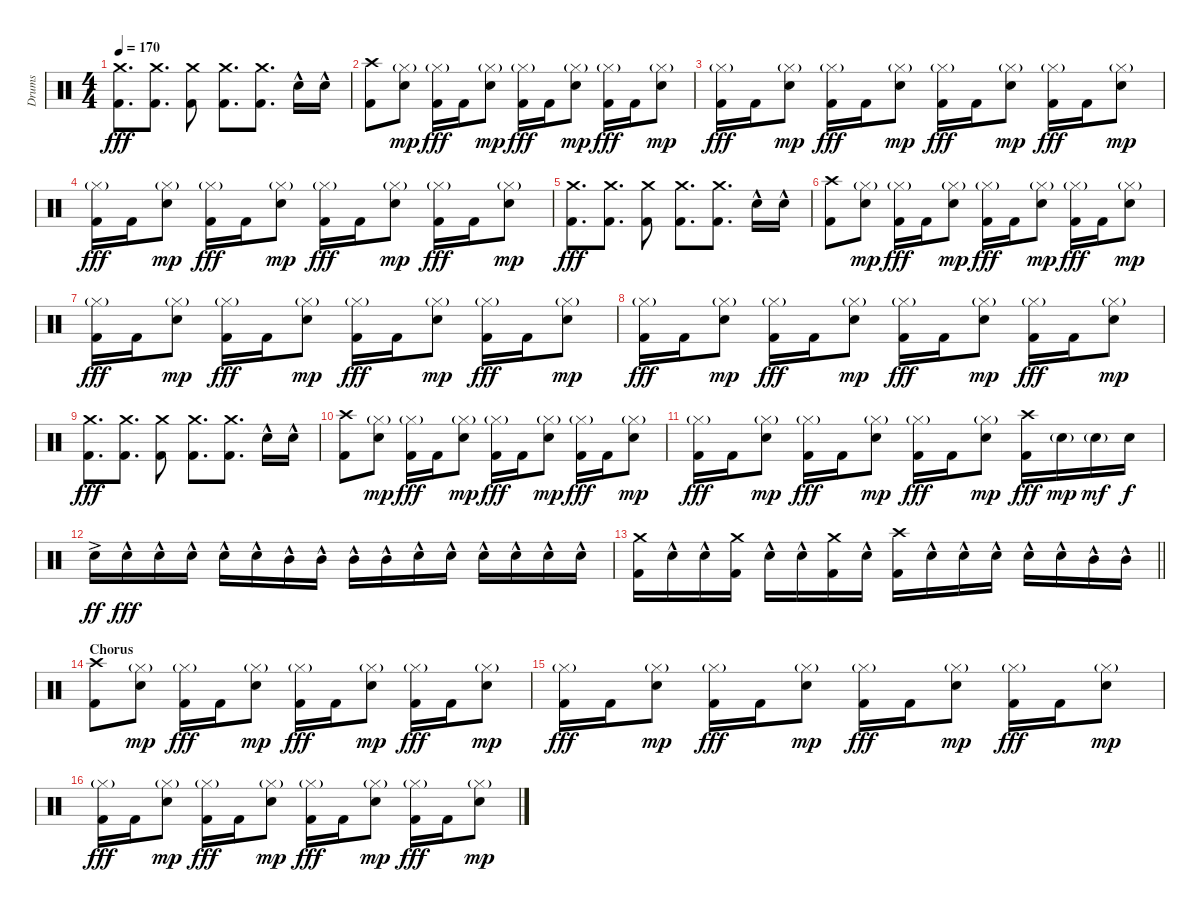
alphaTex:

\track ("Drums" "Drums") {instrument percussion}
\staff {score}
\articulation defaults
\ts (4 4)
\tempo 170
\clef neutral
\ks c
("Crash medium (hit)" "Kick (hit) 2").8{d dy fff} ("Crash medium (hit)" "Kick (hit) 2").8{d} ("Crash medium (hit)" "Kick (hit) 2").8 ("Crash medium (hit)" "Kick (hit) 2").8{d} ("Crash medium (hit)" "Kick (hit) 2").8{d} "Snare (hit) 2"{hac}.16 "Snare (hit) 2"{hac}.16 |
("Crash high (hit)" "Kick (hit) 2").8 ("Hi-Hat (closed)"{g} "Snare (hit) 2").8{dy mp} ("Hi-Hat (closed)"{g} "Kick (hit) 2").16{dy fff} "Kick (hit) 2".16 ("Hi-Hat (closed)"{g} "Snare (hit) 2").8{dy mp} ("Hi-Hat (closed)"{g} "Kick (hit) 2").16{dy fff} "Kick (hit) 2".16 ("Hi-Hat (closed)"{g} "Snare (hit) 2").8{dy mp} ("Hi-Hat (closed)"{g} "Kick (hit) 2").16{dy fff} "Kick (hit) 2".16 ("Hi-Hat (closed)"{g} "Snare (hit) 2").8{dy mp} |
("Hi-Hat (closed)"{g} "Kick (hit) 2").16{dy fff} "Kick (hit) 2".16 ("Hi-Hat (closed)"{g} "Snare (hit) 2").8{dy mp} ("Hi-Hat (closed)"{g} "Kick (hit) 2").16{dy fff} "Kick (hit) 2".16 ("Hi-Hat (closed)"{g} "Snare (hit) 2").8{dy mp} ("Hi-Hat (closed)"{g} "Kick (hit) 2").16{dy fff} "Kick (hit) 2".16 ("Hi-Hat (closed)"{g} "Snare (hit) 2").8{dy mp} ("Hi-Hat (closed)"{g} "Kick (hit) 2").16{dy fff} "Kick (hit) 2".16 ("Hi-Hat (closed)"{g} "Snare (hit) 2").8{dy mp} |
("Hi-Hat (closed)"{g} "Kick (hit) 2").16{dy fff} "Kick (hit) 2".16 ("Hi-Hat (closed)"{g} "Snare (hit) 2").8{dy mp} ("Hi-Hat (closed)"{g} "Kick (hit) 2").16{dy fff} "Kick (hit) 2".16 ("Hi-Hat (closed)"{g} "Snare (hit) 2").8{dy mp} ("Hi-Hat (closed)"{g} "Kick (hit) 2").16{dy fff} "Kick (hit) 2".16 ("Hi-Hat (closed)"{g} "Snare (hit) 2").8{dy mp} ("Hi-Hat (closed)"{g} "Kick (hit) 2").16{dy fff} "Kick (hit) 2".16 ("Hi-Hat (closed)"{g} "Snare (hit) 2").8{dy mp} |
("Crash medium (hit)" "Kick (hit) 2").8{d dy fff} ("Crash medium (hit)" "Kick (hit) 2").8{d} ("Crash medium (hit)" "Kick (hit) 2").8 ("Crash medium (hit)" "Kick (hit) 2").8{d} ("Crash medium (hit)" "Kick (hit) 2").8{d} "Snare (hit) 2"{hac}.16 "Snare (hit) 2"{hac}.16 |
("Crash high (hit)" "Kick (hit) 2").8 ("Hi-Hat (closed)"{g} "Snare (hit) 2").8{dy mp} ("Hi-Hat (closed)"{g} "Kick (hit) 2").16{dy fff} "Kick (hit) 2".16 ("Hi-Hat (closed)"{g} "Snare (hit) 2").8{dy mp} ("Hi-Hat (closed)"{g} "Kick (hit) 2").16{dy fff} "Kick (hit) 2".16 ("Hi-Hat (closed)"{g} "Snare (hit) 2").8{dy mp} ("Hi-Hat (closed)"{g} "Kick (hit) 2").16{dy fff} "Kick (hit) 2".16 ("Hi-Hat (closed)"{g} "Snare (hit) 2").8{dy mp} |
("Hi-Hat (closed)"{g} "Kick (hit) 2").16{dy fff} "Kick (hit) 2".16 ("Hi-Hat (closed)"{g} "Snare (hit) 2").8{dy mp} ("Hi-Hat (closed)"{g} "Kick (hit) 2").16{dy fff} "Kick (hit) 2".16 ("Hi-Hat (closed)"{g} "Snare (hit) 2").8{dy mp} ("Hi-Hat (closed)"{g} "Kick (hit) 2").16{dy fff} "Kick (hit) 2".16 ("Hi-Hat (closed)"{g} "Snare (hit) 2").8{dy mp} ("Hi-Hat (closed)"{g} "Kick (hit) 2").16{dy fff} "Kick (hit) 2".16 ("Hi-Hat (closed)"{g} "Snare (hit) 2").8{dy mp} |
("Hi-Hat (closed)"{g} "Kick (hit) 2").16{dy fff} "Kick (hit) 2".16 ("Hi-Hat (closed)"{g} "Snare (hit) 2").8{dy mp} ("Hi-Hat (closed)"{g} "Kick (hit) 2").16{dy fff} "Kick (hit) 2".16 ("Hi-Hat (closed)"{g} "Snare (hit) 2").8{dy mp} ("Hi-Hat (closed)"{g} "Kick (hit) 2").16{dy fff} "Kick (hit) 2".16 ("Hi-Hat (closed)"{g} "Snare (hit) 2").8{dy mp} ("Hi-Hat (closed)"{g} "Kick (hit) 2").16{dy fff} "Kick (hit) 2".16 ("Hi-Hat (closed)"{g} "Snare (hit) 2").8{dy mp} |
("Crash medium (hit)" "Kick (hit) 2").8{d dy fff} ("Crash medium (hit)" "Kick (hit) 2").8{d} ("Crash medium (hit)" "Kick (hit) 2").8 ("Crash medium (hit)" "Kick (hit) 2").8{d} ("Crash medium (hit)" "Kick (hit) 2").8{d} "Snare (hit) 2"{hac}.16 "Snare (hit) 2"{hac}.16 |
("Crash high (hit)" "Kick (hit) 2").8 ("Hi-Hat (closed)"{g} "Snare (hit) 2").8{dy mp} ("Hi-Hat (closed)"{g} "Kick (hit) 2").16{dy fff} "Kick (hit) 2".16 ("Hi-Hat (closed)"{g} "Snare (hit) 2").8{dy mp} ("Hi-Hat (closed)"{g} "Kick (hit) 2").16{dy fff} "Kick (hit) 2".16 ("Hi-Hat (closed)"{g} "Snare (hit) 2").8{dy mp} ("Hi-Hat (closed)"{g} "Kick (hit) 2").16{dy fff} "Kick (hit) 2".16 ("Hi-Hat (closed)"{g} "Snare (hit) 2").8{dy mp} |
("Hi-Hat (closed)"{g} "Kick (hit) 2").16{dy fff} "Kick (hit) 2".16 ("Hi-Hat (closed)"{g} "Snare (hit) 2").8{dy mp} ("Hi-Hat (closed)"{g} "Kick (hit) 2").16{dy fff} "Kick (hit) 2".16 ("Hi-Hat (closed)"{g} "Snare (hit) 2").8{dy mp} ("Hi-Hat (closed)"{g} "Kick (hit) 2").16{dy fff} "Kick (hit) 2".16 ("Hi-Hat (closed)"{g} "Snare (hit) 2").8{dy mp} ("Crash high (hit)" "Kick (hit) 2").16{dy fff} "Snare (hit) 2"{g}.16{dy mp} "Snare (hit) 2"{g}.16{dy mf} "Snare (hit) 2".16{dy f} |
"Snare (hit) 2"{ac}.16{dy ff} "Snare (hit) 2"{hac}.16{dy fff} "Snare (hit) 2"{hac}.16 "Snare (hit) 2"{hac}.16 "Snare (hit) 2"{hac}.16 "Snare (hit) 2"{hac}.16 "Mid Tom (hit)"{hac}.16 "Mid Tom (hit)"{hac}.16 "Mid Tom (hit)"{hac}.16 "Mid Tom (hit)"{hac}.16 "Snare (hit) 2"{hac}.16 "Snare (hit) 2"{hac}.16 "Snare (hit) 2"{hac}.16 "Snare (hit) 2"{hac}.16 "Snare (hit) 2"{hac}.16 "Snare (hit) 2"{hac}.16 |
\barLineRight lightlight
("Crash medium (hit)" "Kick (hit) 2").16 "Snare (hit) 2"{hac}.16 "Snare (hit) 2"{hac}.16 ("Crash medium (hit)" "Kick (hit) 2").16 "Snare (hit) 2"{hac}.16 "Snare (hit) 2"{hac}.16 ("Crash medium (hit)" "Kick (hit) 2").16 "Snare (hit) 2"{hac}.16 ("Crash high (hit)" "Kick (hit) 2").16 "Snare (hit) 2"{hac}.16 "Snare (hit) 2"{hac}.16 "Snare (hit) 2"{hac}.16 "Snare (hit) 2"{hac}.16 "Snare (hit) 2"{hac}.16 "Mid Tom (hit)"{hac}.16 "Mid Tom (hit)"{hac}.16 |
\section ("" "Chorus")
("Crash high (hit)" "Kick (hit) 2").8 ("Hi-Hat (closed)"{g} "Snare (hit) 2").8{dy mp} ("Hi-Hat (closed)"{g} "Kick (hit) 2").16{dy fff} "Kick (hit) 2".16 ("Hi-Hat (closed)"{g} "Snare (hit) 2").8{dy mp} ("Hi-Hat (closed)"{g} "Kick (hit) 2").16{dy fff} "Kick (hit) 2".16 ("Hi-Hat (closed)"{g} "Snare (hit) 2").8{dy mp} ("Hi-Hat (closed)"{g} "Kick (hit) 2").16{dy fff} "Kick (hit) 2".16 ("Hi-Hat (closed)"{g} "Snare (hit) 2").8{dy mp} |
("Hi-Hat (closed)"{g} "Kick (hit) 2").16{dy fff} "Kick (hit) 2".16 ("Hi-Hat (closed)"{g} "Snare (hit) 2").8{dy mp} ("Hi-Hat (closed)"{g} "Kick (hit) 2").16{dy fff} "Kick (hit) 2".16 ("Hi-Hat (closed)"{g} "Snare (hit) 2").8{dy mp} ("Hi-Hat (closed)"{g} "Kick (hit) 2").16{dy fff} "Kick (hit) 2".16 ("Hi-Hat (closed)"{g} "Snare (hit) 2").8{dy mp} ("Hi-Hat (closed)"{g} "Kick (hit) 2").16{dy fff} "Kick (hit) 2".16 ("Hi-Hat (closed)"{g} "Snare (hit) 2").8{dy mp} |
("Hi-Hat (closed)"{g} "Kick (hit) 2").16{dy fff} "Kick (hit) 2".16 ("Hi-Hat (closed)"{g} "Snare (hit) 2").8{dy mp} ("Hi-Hat (closed)"{g} "Kick (hit) 2").16{dy fff} "Kick (hit) 2".16 ("Hi-Hat (closed)"{g} "Snare (hit) 2").8{dy mp} ("Hi-Hat (closed)"{g} "Kick (hit) 2").16{dy fff} "Kick (hit) 2".16 ("Hi-Hat (closed)"{g} "Snare (hit) 2").8{dy mp} ("Hi-Hat (closed)"{g} "Kick (hit) 2").16{dy fff} "Kick (hit) 2".16 ("Hi-Hat (closed)"{g} "Snare (hit) 2").8{dy mp}
